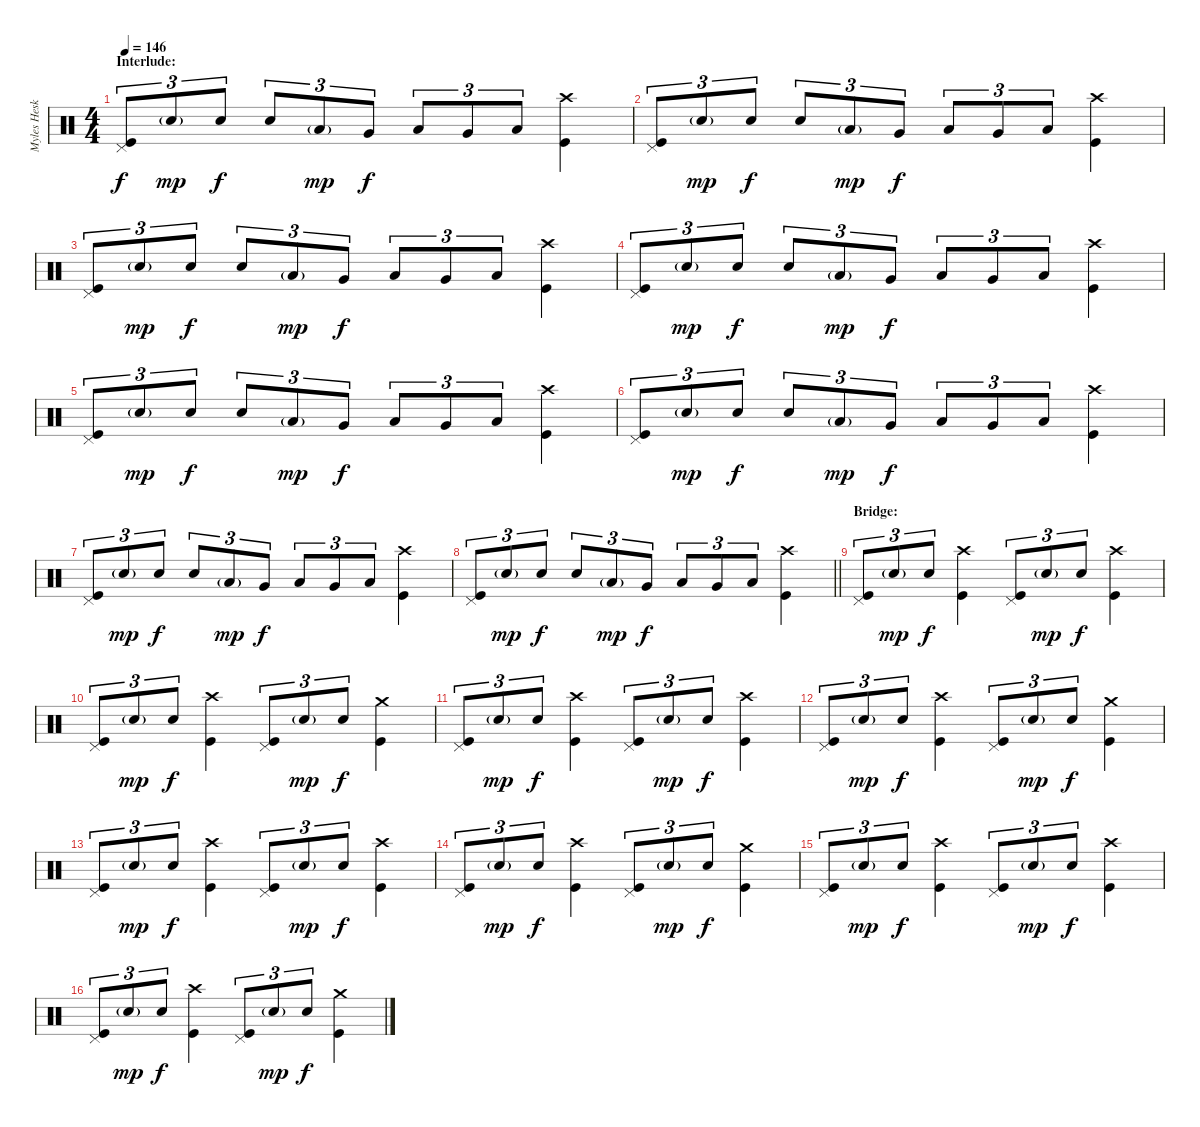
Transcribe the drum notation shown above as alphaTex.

\track ("Myles Heskett" "Myles Hesk") {instrument percussion}
\staff {score}
\articulation defaults
\ts (4 4)
\section ("" "Interlude:")
\tempo 146
\clef neutral
\ks c
("Pedal Hi-Hat (hit)" "Kick (hit)").8{tu (3 2) dy f} "Electric Snare (hit)"{g}.8{tu (3 2) dy mp} "Electric Snare (hit)".8{tu (3 2) dy f} "Electric Snare (hit)".8{tu (3 2)} "Low Tom (hit)"{g}.8{tu (3 2) dy mp} "Very Low Tom (hit)".8{tu (3 2) dy f} "Low Tom (hit)".8{tu (3 2)} "Very Low Tom (hit)".8{tu (3 2)} "Low Floor Tom (hit)".8{tu (3 2)} ("Crash high (hit)" "Kick (hit)").4 |
("Pedal Hi-Hat (hit)" "Kick (hit)").8{tu (3 2)} "Electric Snare (hit)"{g}.8{tu (3 2) dy mp} "Electric Snare (hit)".8{tu (3 2) dy f} "Electric Snare (hit)".8{tu (3 2)} "Low Tom (hit)"{g}.8{tu (3 2) dy mp} "Very Low Tom (hit)".8{tu (3 2) dy f} "Low Tom (hit)".8{tu (3 2)} "Very Low Tom (hit)".8{tu (3 2)} "Low Floor Tom (hit)".8{tu (3 2)} ("Crash high (hit)" "Kick (hit)").4 |
("Pedal Hi-Hat (hit)" "Kick (hit)").8{tu (3 2)} "Electric Snare (hit)"{g}.8{tu (3 2) dy mp} "Electric Snare (hit)".8{tu (3 2) dy f} "Electric Snare (hit)".8{tu (3 2)} "Low Tom (hit)"{g}.8{tu (3 2) dy mp} "Very Low Tom (hit)".8{tu (3 2) dy f} "Low Tom (hit)".8{tu (3 2)} "Very Low Tom (hit)".8{tu (3 2)} "Low Floor Tom (hit)".8{tu (3 2)} ("Crash high (hit)" "Kick (hit)").4 |
("Pedal Hi-Hat (hit)" "Kick (hit)").8{tu (3 2)} "Electric Snare (hit)"{g}.8{tu (3 2) dy mp} "Electric Snare (hit)".8{tu (3 2) dy f} "Electric Snare (hit)".8{tu (3 2)} "Low Tom (hit)"{g}.8{tu (3 2) dy mp} "Very Low Tom (hit)".8{tu (3 2) dy f} "Low Tom (hit)".8{tu (3 2)} "Very Low Tom (hit)".8{tu (3 2)} "Low Floor Tom (hit)".8{tu (3 2)} ("Crash high (hit)" "Kick (hit)").4 |
("Pedal Hi-Hat (hit)" "Kick (hit)").8{tu (3 2)} "Electric Snare (hit)"{g}.8{tu (3 2) dy mp} "Electric Snare (hit)".8{tu (3 2) dy f} "Electric Snare (hit)".8{tu (3 2)} "Low Tom (hit)"{g}.8{tu (3 2) dy mp} "Very Low Tom (hit)".8{tu (3 2) dy f} "Low Tom (hit)".8{tu (3 2)} "Very Low Tom (hit)".8{tu (3 2)} "Low Floor Tom (hit)".8{tu (3 2)} ("Crash high (hit)" "Kick (hit)").4 |
("Pedal Hi-Hat (hit)" "Kick (hit)").8{tu (3 2)} "Electric Snare (hit)"{g}.8{tu (3 2) dy mp} "Electric Snare (hit)".8{tu (3 2) dy f} "Electric Snare (hit)".8{tu (3 2)} "Low Tom (hit)"{g}.8{tu (3 2) dy mp} "Very Low Tom (hit)".8{tu (3 2) dy f} "Low Tom (hit)".8{tu (3 2)} "Very Low Tom (hit)".8{tu (3 2)} "Low Floor Tom (hit)".8{tu (3 2)} ("Crash high (hit)" "Kick (hit)").4 |
("Pedal Hi-Hat (hit)" "Kick (hit)").8{tu (3 2)} "Electric Snare (hit)"{g}.8{tu (3 2) dy mp} "Electric Snare (hit)".8{tu (3 2) dy f} "Electric Snare (hit)".8{tu (3 2)} "Low Tom (hit)"{g}.8{tu (3 2) dy mp} "Very Low Tom (hit)".8{tu (3 2) dy f} "Low Tom (hit)".8{tu (3 2)} "Very Low Tom (hit)".8{tu (3 2)} "Low Floor Tom (hit)".8{tu (3 2)} ("Crash high (hit)" "Kick (hit)").4 |
\barLineRight lightlight
("Pedal Hi-Hat (hit)" "Kick (hit)").8{tu (3 2)} "Electric Snare (hit)"{g}.8{tu (3 2) dy mp} "Electric Snare (hit)".8{tu (3 2) dy f} "Electric Snare (hit)".8{tu (3 2)} "Low Tom (hit)"{g}.8{tu (3 2) dy mp} "Very Low Tom (hit)".8{tu (3 2) dy f} "Low Tom (hit)".8{tu (3 2)} "Very Low Tom (hit)".8{tu (3 2)} "Low Floor Tom (hit)".8{tu (3 2)} ("Crash high (hit)" "Kick (hit)").4 |
\section ("" "Bridge:")
("Pedal Hi-Hat (hit)" "Kick (hit)").8{tu (3 2)} "Electric Snare (hit)"{g}.8{tu (3 2) dy mp} "Electric Snare (hit)".8{tu (3 2) dy f} ("Crash high (hit)" "Kick (hit)").4 ("Pedal Hi-Hat (hit)" "Kick (hit)").8{tu (3 2)} "Electric Snare (hit)"{g}.8{tu (3 2) dy mp} "Electric Snare (hit)".8{tu (3 2) dy f} ("Crash high (hit)" "Kick (hit)").4 |
("Pedal Hi-Hat (hit)" "Kick (hit)").8{tu (3 2)} "Electric Snare (hit)"{g}.8{tu (3 2) dy mp} "Electric Snare (hit)".8{tu (3 2) dy f} ("Crash high (hit)" "Kick (hit)").4 ("Pedal Hi-Hat (hit)" "Kick (hit)").8{tu (3 2)} "Electric Snare (hit)"{g}.8{tu (3 2) dy mp} "Electric Snare (hit)".8{tu (3 2) dy f} ("Crash medium (hit)" "Kick (hit)").4 |
("Pedal Hi-Hat (hit)" "Kick (hit)").8{tu (3 2)} "Electric Snare (hit)"{g}.8{tu (3 2) dy mp} "Electric Snare (hit)".8{tu (3 2) dy f} ("Crash high (hit)" "Kick (hit)").4 ("Pedal Hi-Hat (hit)" "Kick (hit)").8{tu (3 2)} "Electric Snare (hit)"{g}.8{tu (3 2) dy mp} "Electric Snare (hit)".8{tu (3 2) dy f} ("Crash high (hit)" "Kick (hit)").4 |
("Pedal Hi-Hat (hit)" "Kick (hit)").8{tu (3 2)} "Electric Snare (hit)"{g}.8{tu (3 2) dy mp} "Electric Snare (hit)".8{tu (3 2) dy f} ("Crash high (hit)" "Kick (hit)").4 ("Pedal Hi-Hat (hit)" "Kick (hit)").8{tu (3 2)} "Electric Snare (hit)"{g}.8{tu (3 2) dy mp} "Electric Snare (hit)".8{tu (3 2) dy f} ("Crash medium (hit)" "Kick (hit)").4 |
("Pedal Hi-Hat (hit)" "Kick (hit)").8{tu (3 2)} "Electric Snare (hit)"{g}.8{tu (3 2) dy mp} "Electric Snare (hit)".8{tu (3 2) dy f} ("Crash high (hit)" "Kick (hit)").4 ("Pedal Hi-Hat (hit)" "Kick (hit)").8{tu (3 2)} "Electric Snare (hit)"{g}.8{tu (3 2) dy mp} "Electric Snare (hit)".8{tu (3 2) dy f} ("Crash high (hit)" "Kick (hit)").4 |
("Pedal Hi-Hat (hit)" "Kick (hit)").8{tu (3 2)} "Electric Snare (hit)"{g}.8{tu (3 2) dy mp} "Electric Snare (hit)".8{tu (3 2) dy f} ("Crash high (hit)" "Kick (hit)").4 ("Pedal Hi-Hat (hit)" "Kick (hit)").8{tu (3 2)} "Electric Snare (hit)"{g}.8{tu (3 2) dy mp} "Electric Snare (hit)".8{tu (3 2) dy f} ("Crash medium (hit)" "Kick (hit)").4 |
("Pedal Hi-Hat (hit)" "Kick (hit)").8{tu (3 2)} "Electric Snare (hit)"{g}.8{tu (3 2) dy mp} "Electric Snare (hit)".8{tu (3 2) dy f} ("Crash high (hit)" "Kick (hit)").4 ("Pedal Hi-Hat (hit)" "Kick (hit)").8{tu (3 2)} "Electric Snare (hit)"{g}.8{tu (3 2) dy mp} "Electric Snare (hit)".8{tu (3 2) dy f} ("Crash high (hit)" "Kick (hit)").4 |
("Pedal Hi-Hat (hit)" "Kick (hit)").8{tu (3 2)} "Electric Snare (hit)"{g}.8{tu (3 2) dy mp} "Electric Snare (hit)".8{tu (3 2) dy f} ("Crash high (hit)" "Kick (hit)").4 ("Pedal Hi-Hat (hit)" "Kick (hit)").8{tu (3 2)} "Electric Snare (hit)"{g}.8{tu (3 2) dy mp} "Electric Snare (hit)".8{tu (3 2) dy f} ("Crash medium (hit)" "Kick (hit)").4
